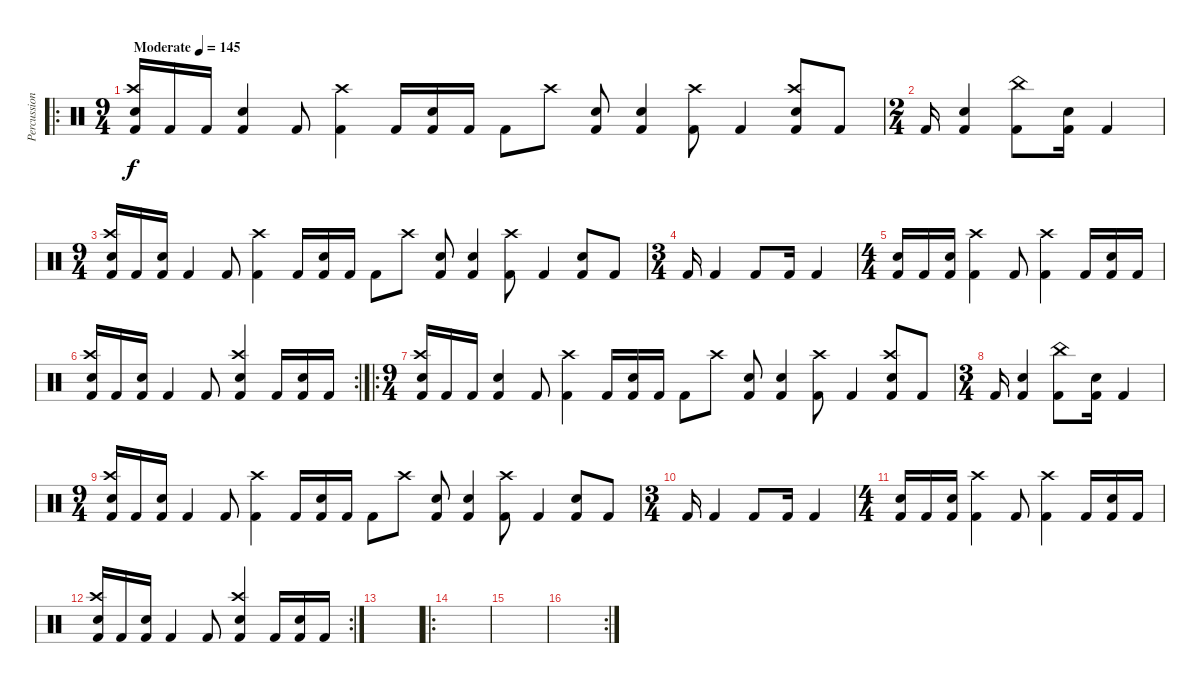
\track ("Percussion" "Percussion") {instrument percussion}
\staff {score}
\articulation defaults
\ro
\ts (9 4)
\tempo (145 "Moderate")
\clef neutral
\ks c
("Electric Snare (hit)" "Crash high (hit)" "Kick (hit) 2").16{dy f} "Kick (hit) 2".16 "Kick (hit) 2".16 ("Electric Snare (hit)" "Kick (hit) 2").4 "Kick (hit) 2".8 ("Crash high (hit)" "Kick (hit) 2").4 "Kick (hit) 2".16 ("Electric Snare (hit)" "Kick (hit) 2").16 "Kick (hit) 2".16 "Kick (hit) 2".8 "Crash high (hit)".8 ("Electric Snare (hit)" "Kick (hit) 2").8 ("Electric Snare (hit)" "Kick (hit) 2").4 ("Crash high (hit)" "Kick (hit) 2").8 "Kick (hit) 2".4 ("Electric Snare (hit)" "Crash high (hit)" "Kick (hit) 2").8 "Kick (hit) 2".8 |
\ts (2 4)
"Kick (hit) 2".16 ("Electric Snare (hit)" "Kick (hit) 2").4 ("China (hit)" "Kick (hit) 2").8 ("Electric Snare (hit)" "Kick (hit) 2").16 "Kick (hit) 2".4 |
\ts (9 4)
("Electric Snare (hit)" "Crash high (hit)" "Kick (hit) 2").16 "Kick (hit) 2".16 ("Electric Snare (hit)" "Kick (hit) 2").16 "Kick (hit) 2".4 "Kick (hit) 2".8 ("Crash high (hit)" "Kick (hit) 2").4 "Kick (hit) 2".16 ("Electric Snare (hit)" "Kick (hit) 2").16 "Kick (hit) 2".16 "Kick (hit) 2".8 "Crash high (hit)".8 ("Electric Snare (hit)" "Kick (hit) 2").8 ("Electric Snare (hit)" "Kick (hit) 2").4 ("Crash high (hit)" "Kick (hit) 2").8 "Kick (hit) 2".4 ("Electric Snare (hit)" "Kick (hit) 2").8 "Kick (hit) 2".8 |
\ts (3 4)
"Kick (hit) 2".16 "Kick (hit) 2".4 "Kick (hit) 2".8 "Kick (hit) 2".16 "Kick (hit) 2".4 |
\ts (4 4)
("Electric Snare (hit)" "Kick (hit) 2").16 "Kick (hit) 2".16 ("Electric Snare (hit)" "Kick (hit) 2").16 ("Crash high (hit)" "Kick (hit) 2").4 "Kick (hit) 2".8 ("Crash high (hit)" "Kick (hit) 2").4 "Kick (hit) 2".16 ("Electric Snare (hit)" "Kick (hit) 2").16 "Kick (hit) 2".16 |
\rc 2
("Electric Snare (hit)" "Crash high (hit)" "Kick (hit) 2").16 "Kick (hit) 2".16 ("Electric Snare (hit)" "Kick (hit) 2").16 "Kick (hit) 2".4 "Kick (hit) 2".8 ("Electric Snare (hit)" "Crash high (hit)" "Kick (hit) 2").4 "Kick (hit) 2".16 ("Electric Snare (hit)" "Kick (hit) 2").16 "Kick (hit) 2".16 |
\ro
\ts (9 4)
("Electric Snare (hit)" "Crash high (hit)" "Kick (hit) 2").16 "Kick (hit) 2".16 "Kick (hit) 2".16 ("Electric Snare (hit)" "Kick (hit) 2").4 "Kick (hit) 2".8 ("Crash high (hit)" "Kick (hit) 2").4 "Kick (hit) 2".16 ("Electric Snare (hit)" "Kick (hit) 2").16 "Kick (hit) 2".16 "Kick (hit) 2".8 "Crash high (hit)".8 ("Electric Snare (hit)" "Kick (hit) 2").8 ("Electric Snare (hit)" "Kick (hit) 2").4 ("Crash high (hit)" "Kick (hit) 2").8 "Kick (hit) 2".4 ("Electric Snare (hit)" "Crash high (hit)" "Kick (hit) 2").8 "Kick (hit) 2".8 |
\ts (3 4)
"Kick (hit) 2".16 ("Electric Snare (hit)" "Kick (hit) 2").4 ("China (hit)" "Kick (hit) 2").8 ("Electric Snare (hit)" "Kick (hit) 2").16 "Kick (hit) 2".4 |
\ts (9 4)
("Electric Snare (hit)" "Crash high (hit)" "Kick (hit) 2").16 "Kick (hit) 2".16 ("Electric Snare (hit)" "Kick (hit) 2").16 "Kick (hit) 2".4 "Kick (hit) 2".8 ("Crash high (hit)" "Kick (hit) 2").4 "Kick (hit) 2".16 ("Electric Snare (hit)" "Kick (hit) 2").16 "Kick (hit) 2".16 "Kick (hit) 2".8 "Crash high (hit)".8 ("Electric Snare (hit)" "Kick (hit) 2").8 ("Electric Snare (hit)" "Kick (hit) 2").4 ("Crash high (hit)" "Kick (hit) 2").8 "Kick (hit) 2".4 ("Electric Snare (hit)" "Kick (hit) 2").8 "Kick (hit) 2".8 |
\ts (3 4)
"Kick (hit) 2".16 "Kick (hit) 2".4 "Kick (hit) 2".8 "Kick (hit) 2".16 "Kick (hit) 2".4 |
\ts (4 4)
("Electric Snare (hit)" "Kick (hit) 2").16 "Kick (hit) 2".16 ("Electric Snare (hit)" "Kick (hit) 2").16 ("Crash high (hit)" "Kick (hit) 2").4 "Kick (hit) 2".8 ("Crash high (hit)" "Kick (hit) 2").4 "Kick (hit) 2".16 ("Electric Snare (hit)" "Kick (hit) 2").16 "Kick (hit) 2".16 |
\rc 2
("Electric Snare (hit)" "Crash high (hit)" "Kick (hit) 2").16 "Kick (hit) 2".16 ("Electric Snare (hit)" "Kick (hit) 2").16 "Kick (hit) 2".4 "Kick (hit) 2".8 ("Electric Snare (hit)" "Crash high (hit)" "Kick (hit) 2").4 "Kick (hit) 2".16 ("Electric Snare (hit)" "Kick (hit) 2").16 "Kick (hit) 2".16 |
|
\ro
|
|
\rc 2
